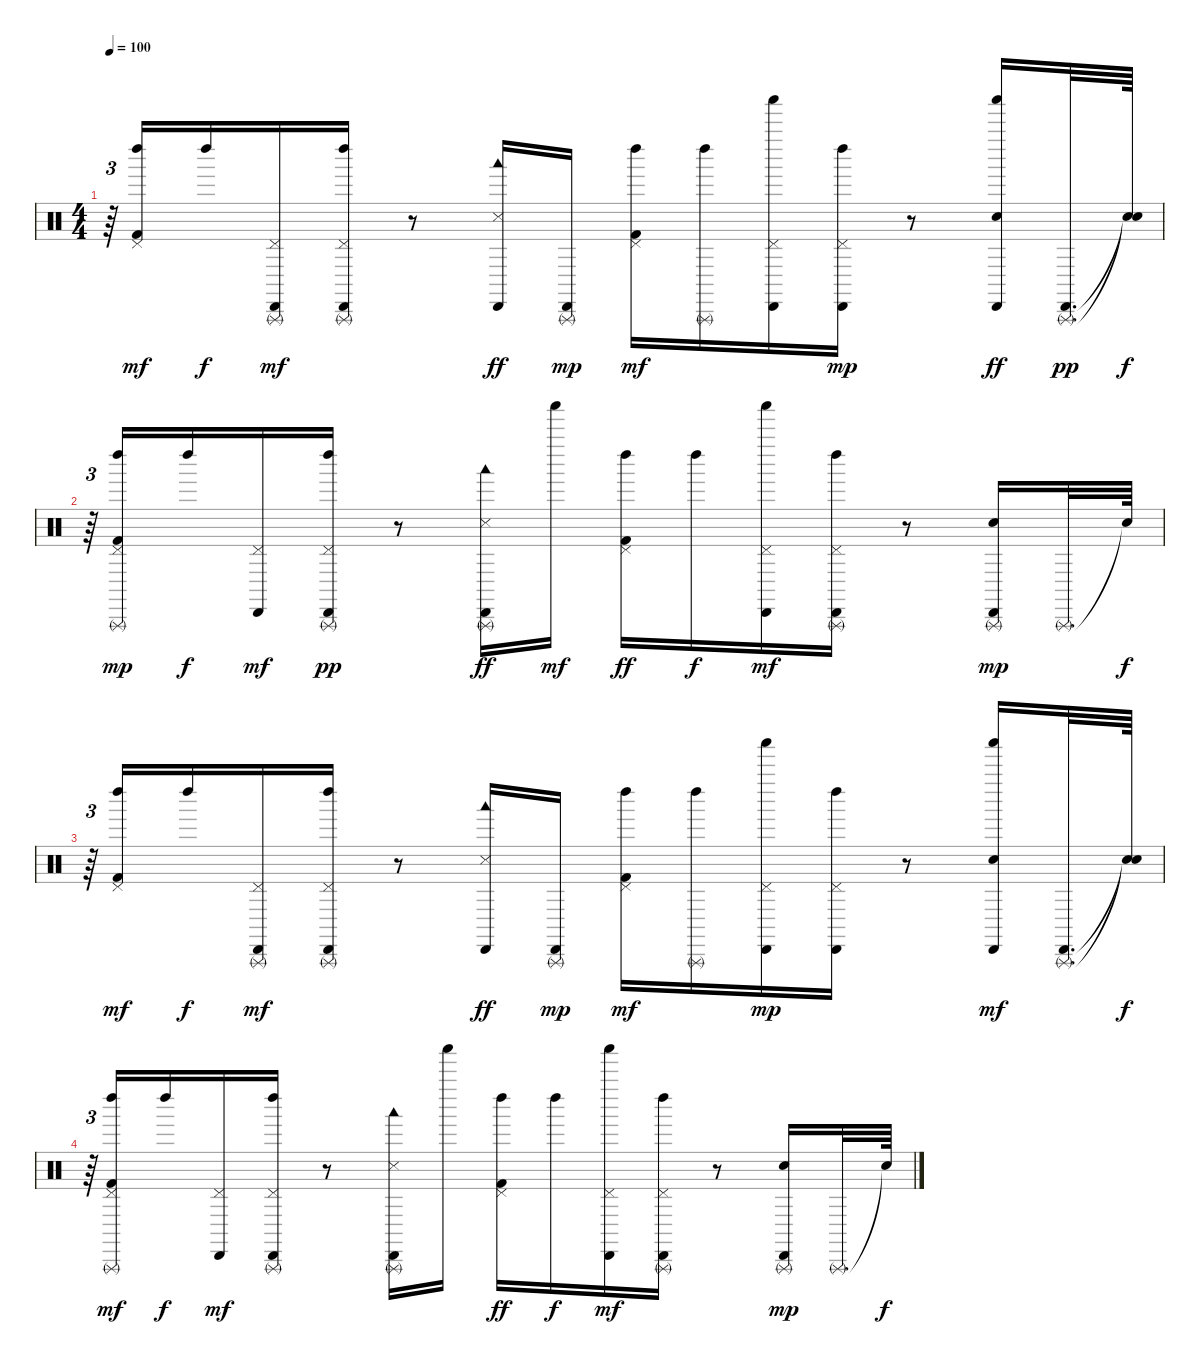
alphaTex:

\track "" {instrument percussion}
\staff {score}
\articulation defaults
\ts (4 4)
\tempo 100
\clef neutral
\ks c
r.64{tu (3 2) dy f} ("Kick (hit) 2" "Left Maraca (hit)" "Pedal Hi-Hat (hit)").16{dy mf} "Left Maraca (hit)".16{dy f} ("Pedal Hi-Hat (hit)" "Triangle (rnute)" "Cabasa (hit)").16{dy mf} ("Triangle (rnute)" "Left Maraca (hit)" "Pedal Hi-Hat (hit)" "Cabasa (hit)").16 r.8 ("Cabasa (hit)" "Woodblock low (hit)" "Snare (side stick) 3").16{dy ff} ("Cabasa (hit)" "Triangle (rnute)").16{dy mp} ("Pedal Hi-Hat (hit)" "Kick (hit) 2" "Left Maraca (hit)").16{dy mf} ("Triangle (rnute)" "Left Maraca (hit)").16 ("Cabasa (hit)" "Pedal Hi-Hat (hit)" "Shaker (hit)").16 ("Cabasa (hit)" "Pedal Hi-Hat (hit)" "Left Maraca (hit)").16{dy mp} r.8 ("Cabasa (hit)" "Shaker (hit)" "Snare (hit) 2").16{dy ff} ("Triangle (rnute)" "Cabasa (hit)").32{d dy pp} ("Snare (hit)"{t} "Snare (hit)"{t}).64{dy f} |
r.64{tu (3 2)} ("Left Maraca (hit)" "Pedal Hi-Hat (hit)" "Kick (hit) 2" "Triangle (rnute)").16{dy mp} "Left Maraca (hit)".16{dy f} ("Cabasa (hit)" "Pedal Hi-Hat (hit)").16{dy mf} ("Left Maraca (hit)" "Triangle (rnute)" "Pedal Hi-Hat (hit)" "Cabasa (hit)").16{dy pp} r.8 ("Cabasa (hit)" "Triangle (rnute)" "Woodblock low (hit)" "Snare (side stick) 3").16{dy ff} "Shaker (hit)".16{dy mf} ("Kick (hit) 2" "Left Maraca (hit)" "Pedal Hi-Hat (hit)").16{dy ff} "Left Maraca (hit)".16{dy f} ("Pedal Hi-Hat (hit)" "Cabasa (hit)" "Shaker (hit)").16{dy mf} ("Cabasa (hit)" "Left Maraca (hit)" "Triangle (rnute)" "Pedal Hi-Hat (hit)").16 r.8 ("Cabasa (hit)" "Snare (hit) 2" "Triangle (rnute)").16{dy mp} "Triangle (rnute)".32{d} "Snare (hit)"{t}.64{dy f} |
r.64{tu (3 2)} ("Kick (hit) 2" "Pedal Hi-Hat (hit)" "Left Maraca (hit)").16{dy mf} "Left Maraca (hit)".16{dy f} ("Triangle (rnute)" "Pedal Hi-Hat (hit)" "Cabasa (hit)").16{dy mf} ("Triangle (rnute)" "Cabasa (hit)" "Pedal Hi-Hat (hit)" "Left Maraca (hit)").16 r.8 ("Cabasa (hit)" "Snare (side stick) 3" "Woodblock low (hit)").16{dy ff} ("Triangle (rnute)" "Cabasa (hit)").16{dy mp} ("Left Maraca (hit)" "Kick (hit) 2" "Pedal Hi-Hat (hit)").16{dy mf} ("Triangle (rnute)" "Left Maraca (hit)").16 ("Shaker (hit)" "Cabasa (hit)" "Pedal Hi-Hat (hit)").16{dy mp} ("Cabasa (hit)" "Pedal Hi-Hat (hit)" "Left Maraca (hit)").16 r.8 ("Cabasa (hit)" "Snare (hit) 2" "Shaker (hit)").16{dy mf} ("Cabasa (hit)" "Triangle (rnute)").32{d} ("Snare (hit)"{t} "Snare (hit)"{t}).64{dy f} |
r.64{tu (3 2)} ("Triangle (rnute)" "Left Maraca (hit)" "Kick (hit) 2" "Pedal Hi-Hat (hit)").16{dy mf} "Left Maraca (hit)".16{dy f} ("Pedal Hi-Hat (hit)" "Cabasa (hit)").16{dy mf} ("Left Maraca (hit)" "Cabasa (hit)" "Pedal Hi-Hat (hit)" "Triangle (rnute)").16 r.8 ("Woodblock low (hit)" "Snare (side stick) 3" "Triangle (rnute)" "Cabasa (hit)").16 "Shaker (hit)".16 ("Left Maraca (hit)" "Pedal Hi-Hat (hit)" "Kick (hit) 2").16{dy ff} "Left Maraca (hit)".16{dy f} ("Cabasa (hit)" "Pedal Hi-Hat (hit)" "Shaker (hit)").16{dy mf} ("Left Maraca (hit)" "Cabasa (hit)" "Triangle (rnute)" "Pedal Hi-Hat (hit)").16 r.8 ("Triangle (rnute)" "Snare (hit) 2" "Cabasa (hit)").16{dy mp} "Triangle (rnute)".32{d} "Snare (hit)"{t}.64{dy f}
